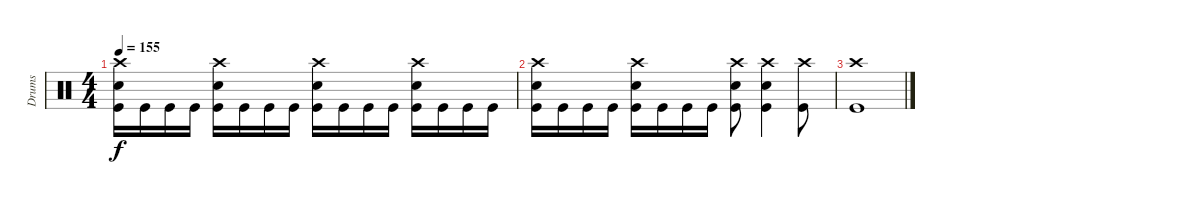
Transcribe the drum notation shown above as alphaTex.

\track ("Drums" "Drums") {instrument percussion}
\staff {score}
\articulation defaults
\ts (4 4)
\tempo 155
\clef neutral
\ks c
("Crash high (hit)" "Snare (hit) 2" "Kick (hit)").16{dy f} "Kick (hit)".16 "Kick (hit)".16 "Kick (hit)".16 ("Crash high (hit)" "Snare (hit) 2" "Kick (hit)").16 "Kick (hit)".16 "Kick (hit)".16 "Kick (hit)".16 ("Crash high (hit)" "Snare (hit) 2" "Kick (hit)").16 "Kick (hit)".16 "Kick (hit)".16 "Kick (hit)".16 ("Crash high (hit)" "Snare (hit) 2" "Kick (hit)").16 "Kick (hit)".16 "Kick (hit)".16 "Kick (hit)".16 |
("Crash high (hit)" "Snare (hit) 2" "Kick (hit)").16 "Kick (hit)".16 "Kick (hit)".16 "Kick (hit)".16 ("Crash high (hit)" "Snare (hit) 2" "Kick (hit)").16 "Kick (hit)".16 "Kick (hit)".16 "Kick (hit)".16 ("Crash high (hit)" "Snare (hit) 2" "Kick (hit)").8 ("Crash high (hit)" "Snare (hit) 2" "Kick (hit)").4 ("Crash high (hit)" "Kick (hit)").8 |
("Crash high (hit)" "Kick (hit)").1
